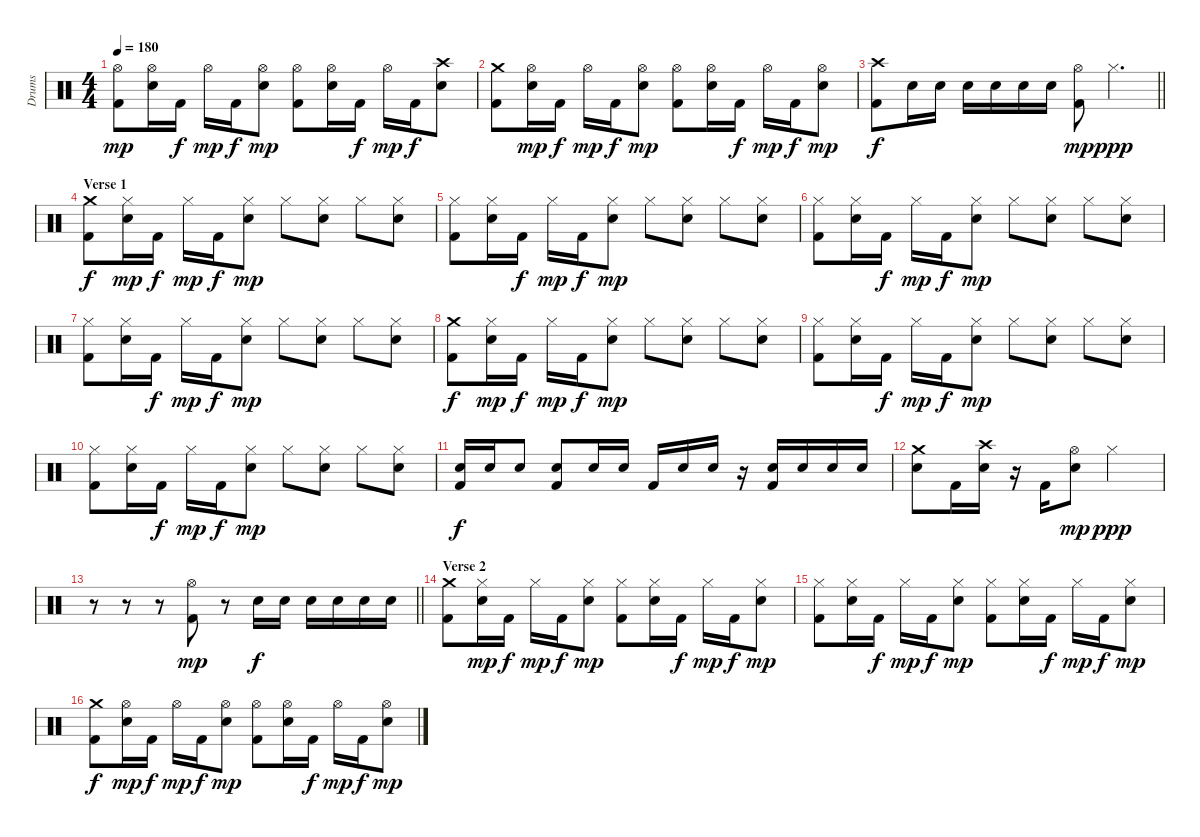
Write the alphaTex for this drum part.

\track ("Drums" "Drums") {instrument percussion}
\staff {score}
\articulation defaults
\ts (4 4)
\tempo 180
\clef neutral
\ks c
("Hi-Hat (open)" "Kick (hit) 2").8{dy mp} ("Hi-Hat (open)" "Snare (hit) 2").16 "Kick (hit) 2".16{dy f} "Hi-Hat (open)".16{dy mp} "Kick (hit) 2".16{dy f} ("Hi-Hat (open)" "Snare (hit) 2").8{dy mp} ("Hi-Hat (open)" "Kick (hit) 2").8 ("Hi-Hat (open)" "Snare (hit) 2").16 "Kick (hit) 2".16{dy f} "Hi-Hat (open)".16{dy mp} "Kick (hit) 2".16{dy f} ("Crash high (hit)" "Snare (hit) 2").8 |
("Crash medium (hit)" "Kick (hit) 2").8 ("Hi-Hat (open)" "Snare (hit) 2").16{dy mp} "Kick (hit) 2".16{dy f} "Hi-Hat (open)".16{dy mp} "Kick (hit) 2".16{dy f} ("Hi-Hat (open)" "Snare (hit) 2").8{dy mp} ("Hi-Hat (open)" "Kick (hit) 2").8 ("Hi-Hat (open)" "Snare (hit) 2").16 "Kick (hit) 2".16{dy f} "Hi-Hat (open)".16{dy mp} "Kick (hit) 2".16{dy f} ("Hi-Hat (open)" "Snare (hit) 2").8{dy mp} |
\barLineRight lightlight
("Crash high (hit)" "Kick (hit) 2").8{dy f} "Snare (hit) 2".16 "Snare (hit) 2".16 "Snare (hit) 2".16 "Snare (hit) 2".16 "Snare (hit) 2".16 "Snare (hit) 2".16 ("Hi-Hat (open)" "Kick (hit) 2").8{dy mp} "Hi-Hat (closed)".4{d dy ppp} |
\section ("" "Verse 1")
("Crash medium (hit)" "Kick (hit) 2").8{dy f} ("Hi-Hat (closed)" "Snare (hit) 2").16{dy mp} "Kick (hit) 2".16{dy f} "Hi-Hat (closed)".16{dy mp} "Kick (hit) 2".16{dy f} ("Hi-Hat (closed)" "Snare (hit) 2").8{dy mp} "Hi-Hat (closed)".8 ("Hi-Hat (closed)" "Snare (hit) 2").8 "Hi-Hat (closed)".8 ("Hi-Hat (closed)" "Snare (hit) 2").8 |
("Hi-Hat (closed)" "Kick (hit) 2").8 ("Hi-Hat (closed)" "Snare (hit) 2").16 "Kick (hit) 2".16{dy f} "Hi-Hat (closed)".16{dy mp} "Kick (hit) 2".16{dy f} ("Hi-Hat (closed)" "Snare (hit) 2").8{dy mp} "Hi-Hat (closed)".8 ("Hi-Hat (closed)" "Snare (hit) 2").8 "Hi-Hat (closed)".8 ("Hi-Hat (closed)" "Snare (hit) 2").8 |
("Hi-Hat (closed)" "Kick (hit) 2").8 ("Hi-Hat (closed)" "Snare (hit) 2").16 "Kick (hit) 2".16{dy f} "Hi-Hat (closed)".16{dy mp} "Kick (hit) 2".16{dy f} ("Hi-Hat (closed)" "Snare (hit) 2").8{dy mp} "Hi-Hat (closed)".8 ("Hi-Hat (closed)" "Snare (hit) 2").8 "Hi-Hat (closed)".8 ("Hi-Hat (closed)" "Snare (hit) 2").8 |
("Hi-Hat (closed)" "Kick (hit) 2").8 ("Hi-Hat (closed)" "Snare (hit) 2").16 "Kick (hit) 2".16{dy f} "Hi-Hat (closed)".16{dy mp} "Kick (hit) 2".16{dy f} ("Hi-Hat (closed)" "Snare (hit) 2").8{dy mp} "Hi-Hat (closed)".8 ("Hi-Hat (closed)" "Snare (hit) 2").8 "Hi-Hat (closed)".8 ("Hi-Hat (closed)" "Snare (hit) 2").8 |
("Crash medium (hit)" "Kick (hit) 2").8{dy f} ("Hi-Hat (closed)" "Snare (hit) 2").16{dy mp} "Kick (hit) 2".16{dy f} "Hi-Hat (closed)".16{dy mp} "Kick (hit) 2".16{dy f} ("Hi-Hat (closed)" "Snare (hit) 2").8{dy mp} "Hi-Hat (closed)".8 ("Hi-Hat (closed)" "Snare (hit) 2").8 "Hi-Hat (closed)".8 ("Hi-Hat (closed)" "Snare (hit) 2").8 |
("Hi-Hat (closed)" "Kick (hit) 2").8 ("Hi-Hat (closed)" "Snare (hit) 2").16 "Kick (hit) 2".16{dy f} "Hi-Hat (closed)".16{dy mp} "Kick (hit) 2".16{dy f} ("Hi-Hat (closed)" "Snare (hit) 2").8{dy mp} "Hi-Hat (closed)".8 ("Hi-Hat (closed)" "Snare (hit) 2").8 "Hi-Hat (closed)".8 ("Hi-Hat (closed)" "Snare (hit) 2").8 |
("Hi-Hat (closed)" "Kick (hit) 2").8 ("Hi-Hat (closed)" "Snare (hit) 2").16 "Kick (hit) 2".16{dy f} "Hi-Hat (closed)".16{dy mp} "Kick (hit) 2".16{dy f} ("Hi-Hat (closed)" "Snare (hit) 2").8{dy mp} "Hi-Hat (closed)".8 ("Hi-Hat (closed)" "Snare (hit) 2").8 "Hi-Hat (closed)".8 ("Hi-Hat (closed)" "Snare (hit) 2").8 |
("Snare (hit) 2" "Kick (hit) 2").16{dy f} "Snare (hit) 2".16 "Snare (hit) 2".8 ("Snare (hit) 2" "Kick (hit) 2").8 "Snare (hit) 2".16 "Snare (hit) 2".16 "Kick (hit) 2".16 "Snare (hit) 2".16 "Snare (hit) 2".16 r.16 ("Snare (hit) 2" "Kick (hit) 2").16 "Snare (hit) 2".16 "Snare (hit) 2".16 "Snare (hit) 2".16 |
("Crash medium (hit)" "Snare (hit) 2").8 "Kick (hit) 2".16 ("Crash high (hit)" "Snare (hit) 2").16 r.16 "Kick (hit) 2".16 ("Hi-Hat (open)" "Snare (hit) 2").8{dy mp} "Hi-Hat (closed)".2{dy ppp} |
\barLineRight lightlight
r.8 r.8 r.8 ("Hi-Hat (open)" "Kick (hit) 2").8{dy mp} r.8 "Snare (hit) 2".16{dy f} "Snare (hit) 2".16 "Snare (hit) 2".16 "Snare (hit) 2".16 "Snare (hit) 2".16 "Snare (hit) 2".16 |
\section ("" "Verse 2")
("Crash medium (hit)" "Kick (hit) 2").8 ("Hi-Hat (closed)" "Snare (hit) 2").16{dy mp} "Kick (hit) 2".16{dy f} "Hi-Hat (closed)".16{dy mp} "Kick (hit) 2".16{dy f} ("Hi-Hat (closed)" "Snare (hit) 2").8{dy mp} ("Hi-Hat (closed)" "Kick (hit) 2").8 ("Hi-Hat (closed)" "Snare (hit) 2").16 "Kick (hit) 2".16{dy f} "Hi-Hat (closed)".16{dy mp} "Kick (hit) 2".16{dy f} ("Hi-Hat (closed)" "Snare (hit) 2").8{dy mp} |
("Hi-Hat (closed)" "Kick (hit) 2").8 ("Hi-Hat (closed)" "Snare (hit) 2").16 "Kick (hit) 2".16{dy f} "Hi-Hat (closed)".16{dy mp} "Kick (hit) 2".16{dy f} ("Hi-Hat (closed)" "Snare (hit) 2").8{dy mp} ("Hi-Hat (closed)" "Kick (hit) 2").8 ("Hi-Hat (closed)" "Snare (hit) 2").16 "Kick (hit) 2".16{dy f} "Hi-Hat (closed)".16{dy mp} "Kick (hit) 2".16{dy f} ("Hi-Hat (closed)" "Snare (hit) 2").8{dy mp} |
("Crash medium (hit)" "Kick (hit) 2").8{dy f} ("Hi-Hat (open)" "Snare (hit) 2").16{dy mp} "Kick (hit) 2".16{dy f} "Hi-Hat (open)".16{dy mp} "Kick (hit) 2".16{dy f} ("Hi-Hat (open)" "Snare (hit) 2").8{dy mp} ("Hi-Hat (open)" "Kick (hit) 2").8 ("Hi-Hat (open)" "Snare (hit) 2").16 "Kick (hit) 2".16{dy f} "Hi-Hat (open)".16{dy mp} "Kick (hit) 2".16{dy f} ("Hi-Hat (open)" "Snare (hit) 2").8{dy mp}
